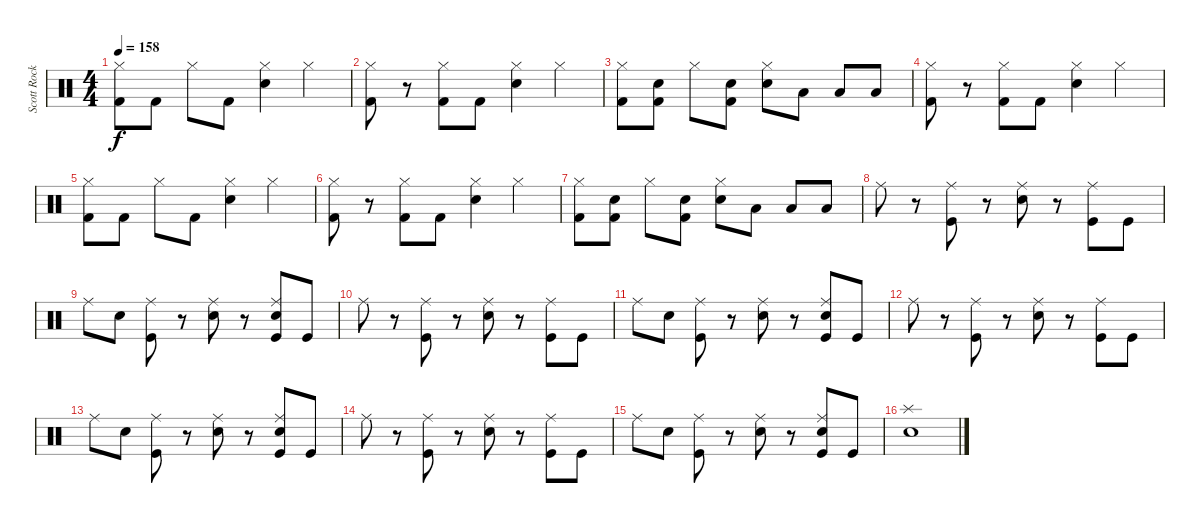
\track ("Scott Rockenfield" "Scott Rock") {instrument percussion}
\staff {score}
\articulation defaults
\ts (4 4)
\tempo 158
\clef neutral
\ks c
("Kick (hit) 2" "Hi-Hat (closed)").8{dy f} "Kick (hit) 2".8 "Hi-Hat (closed)".8 "Kick (hit) 2".8 ("Hi-Hat (closed)" "Electric Snare (hit)").4 "Hi-Hat (closed)".4 |
("Kick (hit) 2" "Hi-Hat (closed)").8 r.8 ("Kick (hit) 2" "Hi-Hat (closed)").8 "Kick (hit) 2".8 ("Hi-Hat (closed)" "Electric Snare (hit)").4 "Hi-Hat (closed)".4 |
("Kick (hit) 2" "Hi-Hat (closed)").8 ("Kick (hit) 2" "Electric Snare (hit)").8 "Hi-Hat (closed)".8 ("Kick (hit) 2" "Electric Snare (hit)").8 ("Hi-Hat (closed)" "Electric Snare (hit)").8 "Low Tom (hit)".8 "Low Tom (hit)".8 "Low Floor Tom (hit)".8 |
("Kick (hit) 2" "Hi-Hat (closed)").8 r.8 ("Kick (hit) 2" "Hi-Hat (closed)").8 "Kick (hit) 2".8 ("Hi-Hat (closed)" "Electric Snare (hit)").4 "Hi-Hat (closed)".4 |
("Kick (hit) 2" "Hi-Hat (closed)").8 "Kick (hit) 2".8 "Hi-Hat (closed)".8 "Kick (hit) 2".8 ("Hi-Hat (closed)" "Electric Snare (hit)").4 "Hi-Hat (closed)".4 |
("Kick (hit) 2" "Hi-Hat (closed)").8 r.8 ("Kick (hit) 2" "Hi-Hat (closed)").8 "Kick (hit) 2".8 ("Hi-Hat (closed)" "Electric Snare (hit)").4 "Hi-Hat (closed)".4 |
("Kick (hit) 2" "Hi-Hat (closed)").8 ("Kick (hit) 2" "Electric Snare (hit)").8 "Hi-Hat (closed)".8 ("Kick (hit) 2" "Electric Snare (hit)").8 ("Hi-Hat (closed)" "Electric Snare (hit)").8 "Low Tom (hit)".8 "Low Tom (hit)".8 "Low Floor Tom (hit)".8 |
"Ride (middle)".8 r.8 ("Kick (hit)" "Ride (middle)").8 r.8 ("Ride (middle)" "Electric Snare (hit)").8 r.8 ("Kick (hit)" "Ride (middle)").8 "Kick (hit)".8 |
"Ride (middle)".8 "Electric Snare (hit)".8 ("Kick (hit)" "Ride (middle)").8 r.8 ("Ride (middle)" "Electric Snare (hit)").8 r.8 ("Kick (hit)" "Ride (middle)" "Electric Snare (hit)").8 "Kick (hit)".8 |
"Ride (middle)".8 r.8 ("Kick (hit)" "Ride (middle)").8 r.8 ("Ride (middle)" "Electric Snare (hit)").8 r.8 ("Kick (hit)" "Ride (middle)").8 "Kick (hit)".8 |
"Ride (middle)".8 "Electric Snare (hit)".8 ("Kick (hit)" "Ride (middle)").8 r.8 ("Ride (middle)" "Electric Snare (hit)").8 r.8 ("Kick (hit)" "Ride (middle)" "Electric Snare (hit)").8 "Kick (hit)".8 |
"Ride (middle)".8 r.8 ("Kick (hit)" "Ride (middle)").8 r.8 ("Ride (middle)" "Electric Snare (hit)").8 r.8 ("Kick (hit)" "Ride (middle)").8 "Kick (hit)".8 |
"Ride (middle)".8 "Electric Snare (hit)".8 ("Kick (hit)" "Ride (middle)").8 r.8 ("Ride (middle)" "Electric Snare (hit)").8 r.8 ("Kick (hit)" "Ride (middle)" "Electric Snare (hit)").8 "Kick (hit)".8 |
"Ride (middle)".8 r.8 ("Kick (hit)" "Ride (middle)").8 r.8 ("Ride (middle)" "Electric Snare (hit)").8 r.8 ("Kick (hit)" "Ride (middle)").8 "Kick (hit)".8 |
"Ride (middle)".8 "Electric Snare (hit)".8 ("Kick (hit)" "Ride (middle)").8 r.8 ("Ride (middle)" "Electric Snare (hit)").8 r.8 ("Kick (hit)" "Ride (middle)" "Electric Snare (hit)").8 "Kick (hit)".8 |
("Splash (hit)" "Electric Snare (hit)").1
